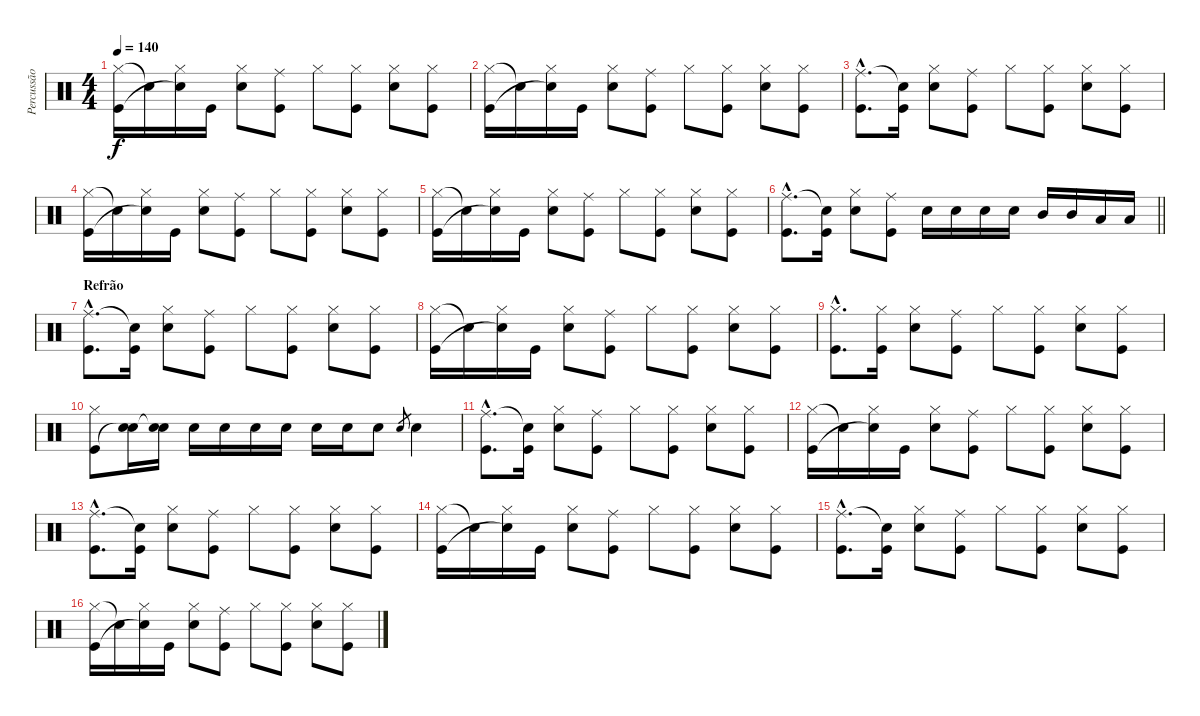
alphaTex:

\track ("Percussão" "Percussão") {instrument percussion}
\staff {score}
\articulation defaults
\ts (4 4)
\tempo 140
\clef neutral
\ks c
("Hi-Hat (closed)" "Kick (hit)").16{dy f} "Snare (hit)"{t}.16 ("Hi-Hat (closed)" "Snare (hit)"{t}).16 "Kick (hit)".16 ("Hi-Hat (closed)" "Snare (hit) 2").8 ("Ride (middle)" "Kick (hit)").8 "Hi-Hat (closed)".8 ("Hi-Hat (closed)" "Kick (hit)").8 ("Hi-Hat (closed)" "Snare (hit) 2").8 ("Hi-Hat (closed)" "Kick (hit)").8 |
("Hi-Hat (closed)" "Kick (hit)").16 "Snare (hit)"{t}.16 ("Hi-Hat (closed)" "Snare (hit)"{t}).16 "Kick (hit)".16 ("Hi-Hat (closed)" "Snare (hit) 2").8 ("Ride (middle)" "Kick (hit)").8 "Hi-Hat (closed)".8 ("Hi-Hat (closed)" "Kick (hit)").8 ("Hi-Hat (closed)" "Snare (hit) 2").8 ("Hi-Hat (closed)" "Kick (hit)").8 |
("Ride (middle)"{hac} "Kick (hit)"{hac}).8{d} ("Snare (hit)"{t} "Kick (hit)").16 ("Hi-Hat (closed)" "Snare (hit) 2").8 ("Ride (middle)" "Kick (hit)").8 "Hi-Hat (closed)".8 ("Hi-Hat (closed)" "Kick (hit)").8 ("Hi-Hat (closed)" "Snare (hit) 2").8 ("Hi-Hat (closed)" "Kick (hit)").8 |
("Hi-Hat (closed)" "Kick (hit)").16 "Snare (hit)"{t}.16 ("Hi-Hat (closed)" "Snare (hit)"{t}).16 "Kick (hit)".16 ("Hi-Hat (closed)" "Snare (hit) 2").8 ("Ride (middle)" "Kick (hit)").8 "Hi-Hat (closed)".8 ("Hi-Hat (closed)" "Kick (hit)").8 ("Hi-Hat (closed)" "Snare (hit) 2").8 ("Hi-Hat (closed)" "Kick (hit)").8 |
("Hi-Hat (closed)" "Kick (hit)").16 "Snare (hit)"{t}.16 ("Hi-Hat (closed)" "Snare (hit)"{t}).16 "Kick (hit)".16 ("Hi-Hat (closed)" "Snare (hit) 2").8 ("Ride (middle)" "Kick (hit)").8 "Hi-Hat (closed)".8 ("Hi-Hat (closed)" "Kick (hit)").8 ("Hi-Hat (closed)" "Snare (hit) 2").8 ("Hi-Hat (closed)" "Kick (hit)").8 |
\barLineRight lightlight
("Ride (middle)"{hac} "Kick (hit)"{hac}).8{d} ("Snare (hit)"{t} "Kick (hit)").16 ("Hi-Hat (closed)" "Snare (hit) 2").8 ("Ride (middle)" "Kick (hit)").8 "Snare (hit) 2".16 "Snare (hit) 2".16 "Snare (hit) 2".16 "Snare (hit) 2".16 "Mid Tom (hit)".16 "Mid Tom (hit)".16 "Low Tom (hit)".16 "Low Tom (hit)".16 |
\section ("" "Refrão")
("Ride (middle)"{hac} "Kick (hit)"{hac}).8{d} ("Snare (hit)"{t} "Kick (hit)").16 ("Hi-Hat (closed)" "Snare (hit) 2").8 ("Ride (middle)" "Kick (hit)").8 "Hi-Hat (closed)".8 ("Hi-Hat (closed)" "Kick (hit)").8 ("Hi-Hat (closed)" "Snare (hit) 2").8 ("Hi-Hat (closed)" "Kick (hit)").8 |
("Hi-Hat (closed)" "Kick (hit)").16 "Snare (hit)"{t}.16 ("Hi-Hat (closed)" "Snare (hit)"{t}).16 "Kick (hit)".16 ("Hi-Hat (closed)" "Snare (hit) 2").8 ("Ride (middle)" "Kick (hit)").8 "Hi-Hat (closed)".8 ("Hi-Hat (closed)" "Kick (hit)").8 ("Hi-Hat (closed)" "Snare (hit) 2").8 ("Hi-Hat (closed)" "Kick (hit)").8 |
("Hi-Hat (closed)"{hac} "Kick (hit)"{hac}).8{d} ("Hi-Hat (closed)" "Kick (hit)").16 ("Hi-Hat (closed)" "Snare (hit) 2").8 ("Ride (middle)" "Kick (hit)").8 "Hi-Hat (closed)".8 ("Hi-Hat (closed)" "Kick (hit)").8 ("Hi-Hat (closed)" "Snare (hit) 2").8 ("Hi-Hat (closed)" "Kick (hit)").8 |
("Hi-Hat (closed)" "Kick (hit)").8 ("Snare (hit) 2" "Snare (hit)"{t}).16 ("Snare (hit) 2" "Snare (hit)"{t}).16 "Snare (hit) 2".16 "Snare (hit) 2".16 "Snare (hit) 2".16 "Snare (hit) 2".16 "Snare (hit) 2".16 "Snare (hit) 2".16 "Snare (hit) 2".8 "Snare (hit) 2".8{gr} "Snare (hit) 2".4 |
("Ride (middle)"{hac} "Kick (hit)"{hac}).8{d} ("Snare (hit)"{t} "Kick (hit)").16 ("Hi-Hat (closed)" "Snare (hit) 2").8 ("Ride (middle)" "Kick (hit)").8 "Hi-Hat (closed)".8 ("Hi-Hat (closed)" "Kick (hit)").8 ("Hi-Hat (closed)" "Snare (hit) 2").8 ("Hi-Hat (closed)" "Kick (hit)").8 |
("Hi-Hat (closed)" "Kick (hit)").16 "Snare (hit)"{t}.16 ("Hi-Hat (closed)" "Snare (hit)"{t}).16 "Kick (hit)".16 ("Hi-Hat (closed)" "Snare (hit) 2").8 ("Ride (middle)" "Kick (hit)").8 "Hi-Hat (closed)".8 ("Hi-Hat (closed)" "Kick (hit)").8 ("Hi-Hat (closed)" "Snare (hit) 2").8 ("Hi-Hat (closed)" "Kick (hit)").8 |
("Ride (middle)"{hac} "Kick (hit)"{hac}).8{d} ("Snare (hit)"{t} "Kick (hit)").16 ("Hi-Hat (closed)" "Snare (hit) 2").8 ("Ride (middle)" "Kick (hit)").8 "Hi-Hat (closed)".8 ("Hi-Hat (closed)" "Kick (hit)").8 ("Hi-Hat (closed)" "Snare (hit) 2").8 ("Hi-Hat (closed)" "Kick (hit)").8 |
("Hi-Hat (closed)" "Kick (hit)").16 "Snare (hit)"{t}.16 ("Hi-Hat (closed)" "Snare (hit)"{t}).16 "Kick (hit)".16 ("Hi-Hat (closed)" "Snare (hit) 2").8 ("Ride (middle)" "Kick (hit)").8 "Hi-Hat (closed)".8 ("Hi-Hat (closed)" "Kick (hit)").8 ("Hi-Hat (closed)" "Snare (hit) 2").8 ("Hi-Hat (closed)" "Kick (hit)").8 |
("Ride (middle)"{hac} "Kick (hit)"{hac}).8{d} ("Snare (hit)"{t} "Kick (hit)").16 ("Hi-Hat (closed)" "Snare (hit) 2").8 ("Ride (middle)" "Kick (hit)").8 "Hi-Hat (closed)".8 ("Hi-Hat (closed)" "Kick (hit)").8 ("Hi-Hat (closed)" "Snare (hit) 2").8 ("Hi-Hat (closed)" "Kick (hit)").8 |
("Hi-Hat (closed)" "Kick (hit)").16 "Snare (hit)"{t}.16 ("Hi-Hat (closed)" "Snare (hit)"{t}).16 "Kick (hit)".16 ("Hi-Hat (closed)" "Snare (hit) 2").8 ("Ride (middle)" "Kick (hit)").8 "Hi-Hat (closed)".8 ("Hi-Hat (closed)" "Kick (hit)").8 ("Hi-Hat (closed)" "Snare (hit) 2").8 ("Hi-Hat (closed)" "Kick (hit)").8
